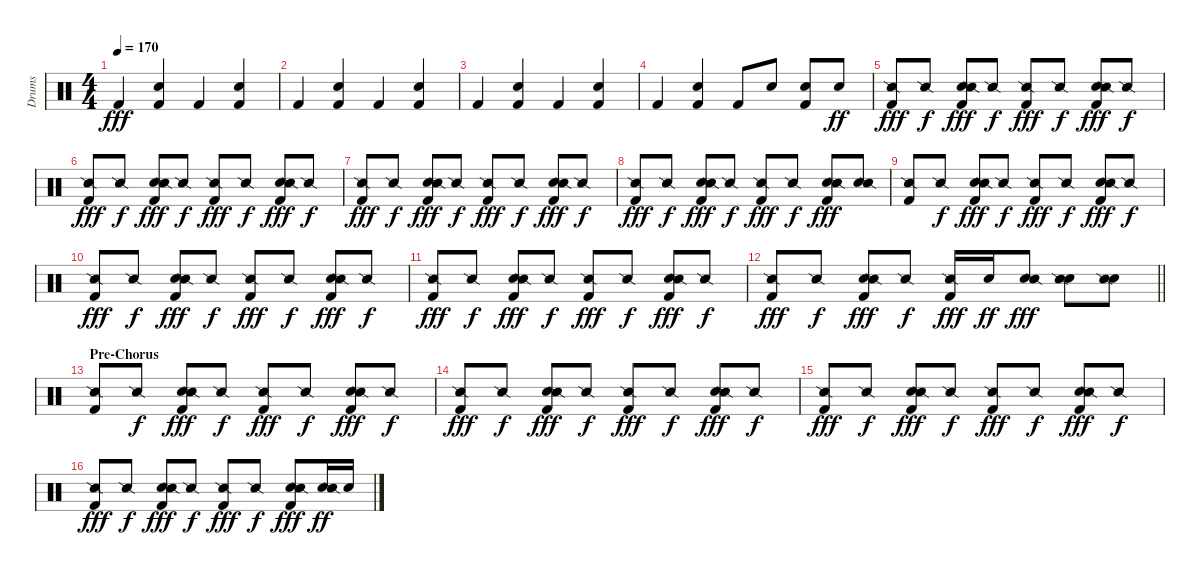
\track ("Drums" "Drums") {instrument percussion}
\staff {score}
\articulation defaults
\ts (4 4)
\tempo 170
\clef neutral
\ks c "Kick (hit) 2".4{dy fff}
("Snare (hit) 2" "Kick (hit) 2").4 "Kick (hit) 2".4 ("Snare (hit) 2" "Kick (hit) 2").4 |
"Kick (hit) 2".4 ("Snare (hit) 2" "Kick (hit) 2").4 "Kick (hit) 2".4 ("Snare (hit) 2" "Kick (hit) 2").4 |
"Kick (hit) 2".4 ("Snare (hit) 2" "Kick (hit) 2").4 "Kick (hit) 2".4 ("Snare (hit) 2" "Kick (hit) 2").4 |
"Kick (hit) 2".4 ("Snare (hit) 2" "Kick (hit) 2").4 "Kick (hit) 2".8 "Snare (hit) 2".8 ("Snare (hit) 2" "Kick (hit) 2").8 "Snare (hit) 2".8{dy ff} |
("Kick (hit) 2" "Snare (side stick) 2").8{dy fff} "Snare (side stick) 2".8{dy f} ("Snare (hit) 2" "Kick (hit) 2" "Snare (side stick) 2").8{dy fff} "Snare (side stick) 2".8{dy f} ("Kick (hit) 2" "Snare (side stick) 2").8{dy fff} "Snare (side stick) 2".8{dy f} ("Snare (hit) 2" "Kick (hit) 2" "Snare (side stick) 2").8{dy fff} "Snare (side stick) 2".8{dy f} |
("Kick (hit) 2" "Snare (side stick) 2").8{dy fff} "Snare (side stick) 2".8{dy f} ("Snare (hit) 2" "Kick (hit) 2" "Snare (side stick) 2").8{dy fff} "Snare (side stick) 2".8{dy f} ("Kick (hit) 2" "Snare (side stick) 2").8{dy fff} "Snare (side stick) 2".8{dy f} ("Snare (hit) 2" "Kick (hit) 2" "Snare (side stick) 2").8{dy fff} "Snare (side stick) 2".8{dy f} |
("Kick (hit) 2" "Snare (side stick) 2").8{dy fff} "Snare (side stick) 2".8{dy f} ("Snare (hit) 2" "Kick (hit) 2" "Snare (side stick) 2").8{dy fff} "Snare (side stick) 2".8{dy f} ("Kick (hit) 2" "Snare (side stick) 2").8{dy fff} "Snare (side stick) 2".8{dy f} ("Snare (hit) 2" "Kick (hit) 2" "Snare (side stick) 2").8{dy fff} "Snare (side stick) 2".8{dy f} |
("Kick (hit) 2" "Snare (side stick) 2").8{dy fff} "Snare (side stick) 2".8{dy f} ("Snare (hit) 2" "Kick (hit) 2" "Snare (side stick) 2").8{dy fff} "Snare (side stick) 2".8{dy f} ("Kick (hit) 2" "Snare (side stick) 2").8{dy fff} "Snare (side stick) 2".8{dy f} ("Snare (hit) 2" "Kick (hit) 2" "Snare (side stick) 2").8{dy fff} ("Snare (hit) 2" "Snare (side stick) 2").8 |
("Kick (hit) 2" "Snare (side stick) 2").8 "Snare (side stick) 2".8{dy f} ("Snare (hit) 2" "Kick (hit) 2" "Snare (side stick) 2").8{dy fff} "Snare (side stick) 2".8{dy f} ("Kick (hit) 2" "Snare (side stick) 2").8{dy fff} "Snare (side stick) 2".8{dy f} ("Snare (hit) 2" "Kick (hit) 2" "Snare (side stick) 2").8{dy fff} "Snare (side stick) 2".8{dy f} |
("Kick (hit) 2" "Snare (side stick) 2").8{dy fff} "Snare (side stick) 2".8{dy f} ("Snare (hit) 2" "Kick (hit) 2" "Snare (side stick) 2").8{dy fff} "Snare (side stick) 2".8{dy f} ("Kick (hit) 2" "Snare (side stick) 2").8{dy fff} "Snare (side stick) 2".8{dy f} ("Snare (hit) 2" "Kick (hit) 2" "Snare (side stick) 2").8{dy fff} "Snare (side stick) 2".8{dy f} |
("Kick (hit) 2" "Snare (side stick) 2").8{dy fff} "Snare (side stick) 2".8{dy f} ("Snare (hit) 2" "Kick (hit) 2" "Snare (side stick) 2").8{dy fff} "Snare (side stick) 2".8{dy f} ("Kick (hit) 2" "Snare (side stick) 2").8{dy fff} "Snare (side stick) 2".8{dy f} ("Snare (hit) 2" "Kick (hit) 2" "Snare (side stick) 2").8{dy fff} "Snare (side stick) 2".8{dy f} |
\barLineRight lightlight
("Kick (hit) 2" "Snare (side stick) 2").8{dy fff} "Snare (side stick) 2".8{dy f} ("Snare (hit) 2" "Kick (hit) 2" "Snare (side stick) 2").8{dy fff} "Snare (side stick) 2".8{dy f} ("Kick (hit) 2" "Snare (side stick) 2").16{dy fff} "Snare (hit) 2".16{dy ff} ("Snare (hit) 2" "Snare (side stick) 2").8{dy fff} ("Snare (hit) 2" "Snare (side stick) 2").8 ("Snare (hit) 2" "Snare (side stick) 2").8 |
\section ("" "Pre-Chorus")
("Kick (hit) 2" "Snare (side stick) 2").8 "Snare (side stick) 2".8{dy f} ("Snare (hit) 2" "Kick (hit) 2" "Snare (side stick) 2").8{dy fff} "Snare (side stick) 2".8{dy f} ("Kick (hit) 2" "Snare (side stick) 2").8{dy fff} "Snare (side stick) 2".8{dy f} ("Snare (hit) 2" "Kick (hit) 2" "Snare (side stick) 2").8{dy fff} "Snare (side stick) 2".8{dy f} |
("Kick (hit) 2" "Snare (side stick) 2").8{dy fff} "Snare (side stick) 2".8{dy f} ("Snare (hit) 2" "Kick (hit) 2" "Snare (side stick) 2").8{dy fff} "Snare (side stick) 2".8{dy f} ("Kick (hit) 2" "Snare (side stick) 2").8{dy fff} "Snare (side stick) 2".8{dy f} ("Snare (hit) 2" "Kick (hit) 2" "Snare (side stick) 2").8{dy fff} "Snare (side stick) 2".8{dy f} |
("Kick (hit) 2" "Snare (side stick) 2").8{dy fff} "Snare (side stick) 2".8{dy f} ("Snare (hit) 2" "Kick (hit) 2" "Snare (side stick) 2").8{dy fff} "Snare (side stick) 2".8{dy f} ("Kick (hit) 2" "Snare (side stick) 2").8{dy fff} "Snare (side stick) 2".8{dy f} ("Snare (hit) 2" "Kick (hit) 2" "Snare (side stick) 2").8{dy fff} "Snare (side stick) 2".8{dy f} |
("Kick (hit) 2" "Snare (side stick) 2").8{dy fff} "Snare (side stick) 2".8{dy f} ("Snare (hit) 2" "Kick (hit) 2" "Snare (side stick) 2").8{dy fff} "Snare (side stick) 2".8{dy f} ("Kick (hit) 2" "Snare (side stick) 2").8{dy fff} "Snare (side stick) 2".8{dy f} ("Snare (hit) 2" "Kick (hit) 2" "Snare (side stick) 2").8{dy fff} ("Snare (hit) 2" "Snare (side stick) 2").16{dy ff} "Snare (hit) 2".16
